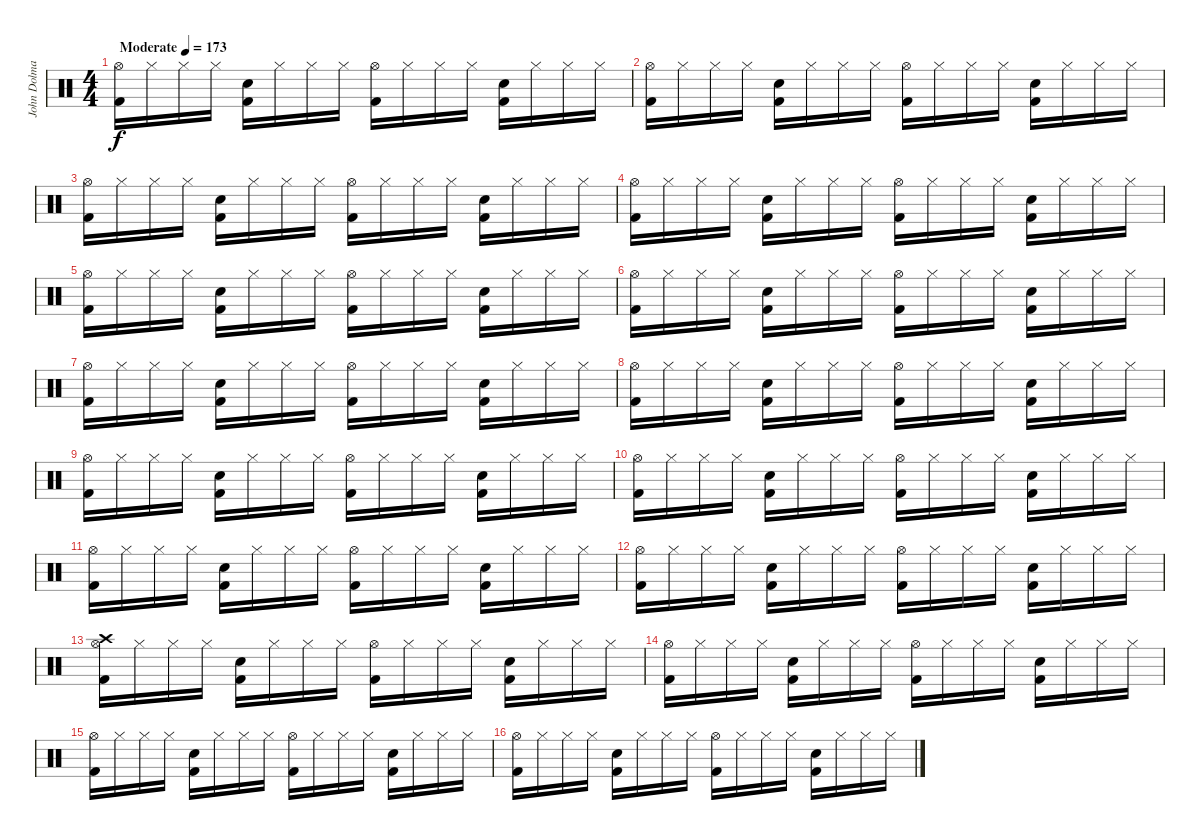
\track ("John Dolmayan" "John Dolma") {instrument percussion}
\staff {score}
\articulation defaults
\ts (4 4)
\tempo (173 "Moderate")
\clef neutral
\ks c
("Kick (hit) 2" "Hi-Hat (open)").16{dy f} "Hi-Hat (closed)".16 "Hi-Hat (closed)".16 "Hi-Hat (closed)".16 ("Kick (hit) 2" "Electric Snare (hit)").16 "Hi-Hat (closed)".16 "Hi-Hat (closed)".16 "Hi-Hat (closed)".16 ("Kick (hit) 2" "Hi-Hat (open)").16 "Hi-Hat (closed)".16 "Hi-Hat (closed)".16 "Hi-Hat (closed)".16 ("Kick (hit) 2" "Electric Snare (hit)").16 "Hi-Hat (closed)".16 "Hi-Hat (closed)".16 "Hi-Hat (closed)".16 |
("Kick (hit) 2" "Hi-Hat (open)").16 "Hi-Hat (closed)".16 "Hi-Hat (closed)".16 "Hi-Hat (closed)".16 ("Kick (hit) 2" "Electric Snare (hit)").16 "Hi-Hat (closed)".16 "Hi-Hat (closed)".16 "Hi-Hat (closed)".16 ("Kick (hit) 2" "Hi-Hat (open)").16 "Hi-Hat (closed)".16 "Hi-Hat (closed)".16 "Hi-Hat (closed)".16 ("Kick (hit) 2" "Electric Snare (hit)").16 "Hi-Hat (closed)".16 "Hi-Hat (closed)".16 "Hi-Hat (closed)".16 |
("Kick (hit) 2" "Hi-Hat (open)").16 "Hi-Hat (closed)".16 "Hi-Hat (closed)".16 "Hi-Hat (closed)".16 ("Kick (hit) 2" "Electric Snare (hit)").16 "Hi-Hat (closed)".16 "Hi-Hat (closed)".16 "Hi-Hat (closed)".16 ("Kick (hit) 2" "Hi-Hat (open)").16 "Hi-Hat (closed)".16 "Hi-Hat (closed)".16 "Hi-Hat (closed)".16 ("Kick (hit) 2" "Electric Snare (hit)").16 "Hi-Hat (closed)".16 "Hi-Hat (closed)".16 "Hi-Hat (closed)".16 |
("Kick (hit) 2" "Hi-Hat (open)").16 "Hi-Hat (closed)".16 "Hi-Hat (closed)".16 "Hi-Hat (closed)".16 ("Kick (hit) 2" "Electric Snare (hit)").16 "Hi-Hat (closed)".16 "Hi-Hat (closed)".16 "Hi-Hat (closed)".16 ("Kick (hit) 2" "Hi-Hat (open)").16 "Hi-Hat (closed)".16 "Hi-Hat (closed)".16 "Hi-Hat (closed)".16 ("Kick (hit) 2" "Electric Snare (hit)").16 "Hi-Hat (closed)".16 "Hi-Hat (closed)".16 "Hi-Hat (closed)".16 |
("Kick (hit) 2" "Hi-Hat (open)").16 "Hi-Hat (closed)".16 "Hi-Hat (closed)".16 "Hi-Hat (closed)".16 ("Kick (hit) 2" "Electric Snare (hit)").16 "Hi-Hat (closed)".16 "Hi-Hat (closed)".16 "Hi-Hat (closed)".16 ("Kick (hit) 2" "Hi-Hat (open)").16 "Hi-Hat (closed)".16 "Hi-Hat (closed)".16 "Hi-Hat (closed)".16 ("Kick (hit) 2" "Electric Snare (hit)").16 "Hi-Hat (closed)".16 "Hi-Hat (closed)".16 "Hi-Hat (closed)".16 |
("Kick (hit) 2" "Hi-Hat (open)").16 "Hi-Hat (closed)".16 "Hi-Hat (closed)".16 "Hi-Hat (closed)".16 ("Kick (hit) 2" "Electric Snare (hit)").16 "Hi-Hat (closed)".16 "Hi-Hat (closed)".16 "Hi-Hat (closed)".16 ("Kick (hit) 2" "Hi-Hat (open)").16 "Hi-Hat (closed)".16 "Hi-Hat (closed)".16 "Hi-Hat (closed)".16 ("Kick (hit) 2" "Electric Snare (hit)").16 "Hi-Hat (closed)".16 "Hi-Hat (closed)".16 "Hi-Hat (closed)".16 |
("Kick (hit) 2" "Hi-Hat (open)").16 "Hi-Hat (closed)".16 "Hi-Hat (closed)".16 "Hi-Hat (closed)".16 ("Kick (hit) 2" "Electric Snare (hit)").16 "Hi-Hat (closed)".16 "Hi-Hat (closed)".16 "Hi-Hat (closed)".16 ("Kick (hit) 2" "Hi-Hat (open)").16 "Hi-Hat (closed)".16 "Hi-Hat (closed)".16 "Hi-Hat (closed)".16 ("Kick (hit) 2" "Electric Snare (hit)").16 "Hi-Hat (closed)".16 "Hi-Hat (closed)".16 "Hi-Hat (closed)".16 |
("Kick (hit) 2" "Hi-Hat (open)").16 "Hi-Hat (closed)".16 "Hi-Hat (closed)".16 "Hi-Hat (closed)".16 ("Kick (hit) 2" "Electric Snare (hit)").16 "Hi-Hat (closed)".16 "Hi-Hat (closed)".16 "Hi-Hat (closed)".16 ("Kick (hit) 2" "Hi-Hat (open)").16 "Hi-Hat (closed)".16 "Hi-Hat (closed)".16 "Hi-Hat (closed)".16 ("Kick (hit) 2" "Electric Snare (hit)").16 "Hi-Hat (closed)".16 "Hi-Hat (closed)".16 "Hi-Hat (closed)".16 |
("Kick (hit) 2" "Hi-Hat (open)").16 "Hi-Hat (closed)".16 "Hi-Hat (closed)".16 "Hi-Hat (closed)".16 ("Kick (hit) 2" "Electric Snare (hit)").16 "Hi-Hat (closed)".16 "Hi-Hat (closed)".16 "Hi-Hat (closed)".16 ("Kick (hit) 2" "Hi-Hat (open)").16 "Hi-Hat (closed)".16 "Hi-Hat (closed)".16 "Hi-Hat (closed)".16 ("Kick (hit) 2" "Electric Snare (hit)").16 "Hi-Hat (closed)".16 "Hi-Hat (closed)".16 "Hi-Hat (closed)".16 |
("Kick (hit) 2" "Hi-Hat (open)").16 "Hi-Hat (closed)".16 "Hi-Hat (closed)".16 "Hi-Hat (closed)".16 ("Kick (hit) 2" "Electric Snare (hit)").16 "Hi-Hat (closed)".16 "Hi-Hat (closed)".16 "Hi-Hat (closed)".16 ("Kick (hit) 2" "Hi-Hat (open)").16 "Hi-Hat (closed)".16 "Hi-Hat (closed)".16 "Hi-Hat (closed)".16 ("Kick (hit) 2" "Electric Snare (hit)").16 "Hi-Hat (closed)".16 "Hi-Hat (closed)".16 "Hi-Hat (closed)".16 |
("Kick (hit) 2" "Hi-Hat (open)").16 "Hi-Hat (closed)".16 "Hi-Hat (closed)".16 "Hi-Hat (closed)".16 ("Kick (hit) 2" "Electric Snare (hit)").16 "Hi-Hat (closed)".16 "Hi-Hat (closed)".16 "Hi-Hat (closed)".16 ("Kick (hit) 2" "Hi-Hat (open)").16 "Hi-Hat (closed)".16 "Hi-Hat (closed)".16 "Hi-Hat (closed)".16 ("Kick (hit) 2" "Electric Snare (hit)").16 "Hi-Hat (closed)".16 "Hi-Hat (closed)".16 "Hi-Hat (closed)".16 |
("Kick (hit) 2" "Hi-Hat (open)").16 "Hi-Hat (closed)".16 "Hi-Hat (closed)".16 "Hi-Hat (closed)".16 ("Kick (hit) 2" "Electric Snare (hit)").16 "Hi-Hat (closed)".16 "Hi-Hat (closed)".16 "Hi-Hat (closed)".16 ("Kick (hit) 2" "Hi-Hat (open)").16 "Hi-Hat (closed)".16 "Hi-Hat (closed)".16 "Hi-Hat (closed)".16 ("Kick (hit) 2" "Electric Snare (hit)").16 "Hi-Hat (closed)".16 "Hi-Hat (closed)".16 "Hi-Hat (closed)".16 |
("Kick (hit) 2" "Hi-Hat (open)" "Crash high (hit)").16 "Hi-Hat (closed)".16 "Hi-Hat (closed)".16 "Hi-Hat (closed)".16 ("Kick (hit) 2" "Electric Snare (hit)").16 "Hi-Hat (closed)".16 "Hi-Hat (closed)".16 "Hi-Hat (closed)".16 ("Kick (hit) 2" "Hi-Hat (open)").16 "Hi-Hat (closed)".16 "Hi-Hat (closed)".16 "Hi-Hat (closed)".16 ("Kick (hit) 2" "Electric Snare (hit)").16 "Hi-Hat (closed)".16 "Hi-Hat (closed)".16 "Hi-Hat (closed)".16 |
("Kick (hit) 2" "Hi-Hat (open)").16 "Hi-Hat (closed)".16 "Hi-Hat (closed)".16 "Hi-Hat (closed)".16 ("Kick (hit) 2" "Electric Snare (hit)").16 "Hi-Hat (closed)".16 "Hi-Hat (closed)".16 "Hi-Hat (closed)".16 ("Kick (hit) 2" "Hi-Hat (open)").16 "Hi-Hat (closed)".16 "Hi-Hat (closed)".16 "Hi-Hat (closed)".16 ("Kick (hit) 2" "Electric Snare (hit)").16 "Hi-Hat (closed)".16 "Hi-Hat (closed)".16 "Hi-Hat (closed)".16 |
("Kick (hit) 2" "Hi-Hat (open)").16 "Hi-Hat (closed)".16 "Hi-Hat (closed)".16 "Hi-Hat (closed)".16 ("Kick (hit) 2" "Electric Snare (hit)").16 "Hi-Hat (closed)".16 "Hi-Hat (closed)".16 "Hi-Hat (closed)".16 ("Kick (hit) 2" "Hi-Hat (open)").16 "Hi-Hat (closed)".16 "Hi-Hat (closed)".16 "Hi-Hat (closed)".16 ("Kick (hit) 2" "Electric Snare (hit)").16 "Hi-Hat (closed)".16 "Hi-Hat (closed)".16 "Hi-Hat (closed)".16 |
("Kick (hit) 2" "Hi-Hat (open)").16 "Hi-Hat (closed)".16 "Hi-Hat (closed)".16 "Hi-Hat (closed)".16 ("Kick (hit) 2" "Electric Snare (hit)").16 "Hi-Hat (closed)".16 "Hi-Hat (closed)".16 "Hi-Hat (closed)".16 ("Kick (hit) 2" "Hi-Hat (open)").16 "Hi-Hat (closed)".16 "Hi-Hat (closed)".16 "Hi-Hat (closed)".16 ("Kick (hit) 2" "Electric Snare (hit)").16 "Hi-Hat (closed)".16 "Hi-Hat (closed)".16 "Hi-Hat (closed)".16
